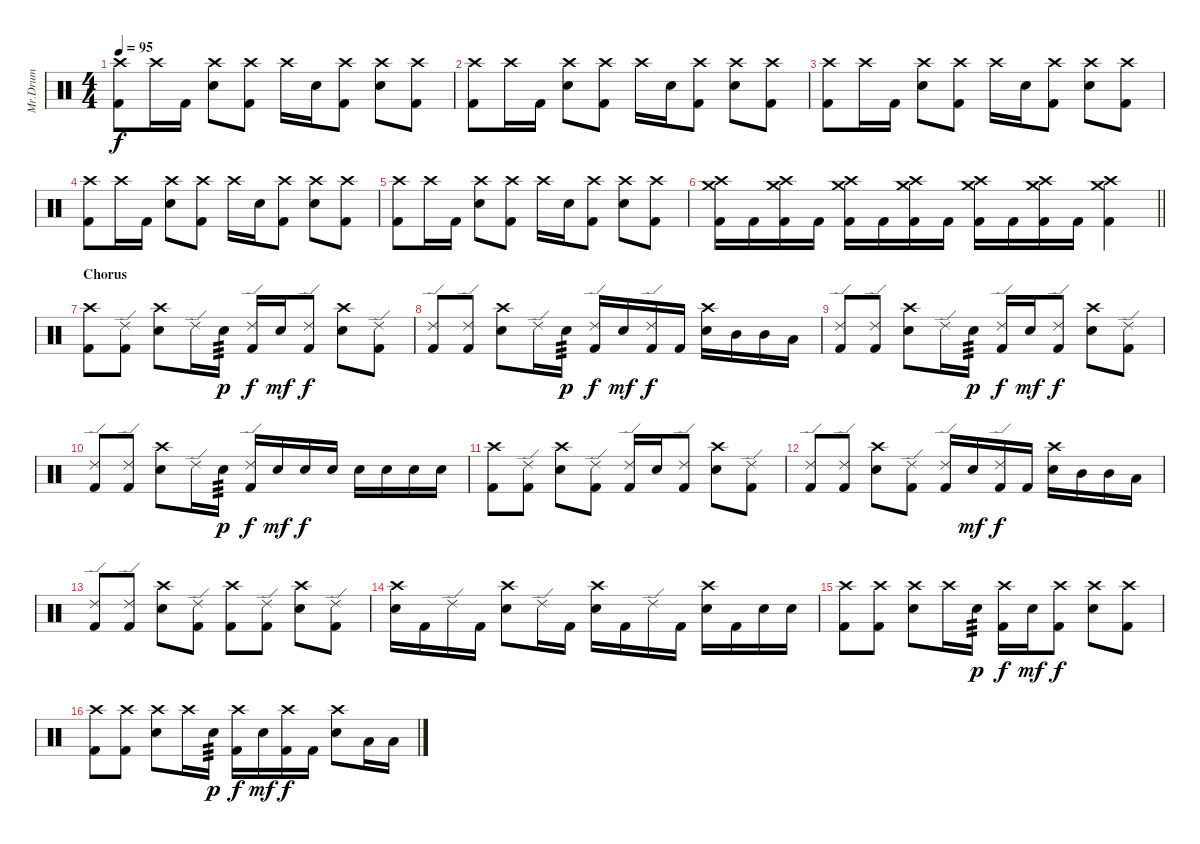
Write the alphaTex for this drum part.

\track ("Mr.Drum" "Mr.Drum") {instrument percussion}
\staff {score}
\articulation defaults
\ts (4 4)
\tempo 95
\clef neutral
\ks c
("Crash high (hit)" "Kick (hit) 2").8{dy f} "Crash high (hit)".16 "Kick (hit) 2".16 ("Crash high (hit)" "Electric Snare (hit)").8 ("Crash high (hit)" "Kick (hit) 2").8 "Crash high (hit)".16 "Electric Snare (hit)".16 ("Crash high (hit)" "Kick (hit) 2").8 ("Crash high (hit)" "Electric Snare (hit)").8 ("Crash high (hit)" "Kick (hit) 2").8 |
("Crash high (hit)" "Kick (hit) 2").8 "Crash high (hit)".16 "Kick (hit) 2".16 ("Crash high (hit)" "Electric Snare (hit)").8 ("Crash high (hit)" "Kick (hit) 2").8 "Crash high (hit)".16 "Electric Snare (hit)".16 ("Crash high (hit)" "Kick (hit) 2").8 ("Crash high (hit)" "Electric Snare (hit)").8 ("Crash high (hit)" "Kick (hit) 2").8 |
("Crash high (hit)" "Kick (hit) 2").8 "Crash high (hit)".16 "Kick (hit) 2".16 ("Crash high (hit)" "Electric Snare (hit)").8 ("Crash high (hit)" "Kick (hit) 2").8 "Crash high (hit)".16 "Electric Snare (hit)".16 ("Crash high (hit)" "Kick (hit) 2").8 ("Crash high (hit)" "Electric Snare (hit)").8 ("Crash high (hit)" "Kick (hit) 2").8 |
("Crash high (hit)" "Kick (hit) 2").8 "Crash high (hit)".16 "Kick (hit) 2".16 ("Crash high (hit)" "Electric Snare (hit)").8 ("Crash high (hit)" "Kick (hit) 2").8 "Crash high (hit)".16 "Electric Snare (hit)".16 ("Crash high (hit)" "Kick (hit) 2").8 ("Crash high (hit)" "Electric Snare (hit)").8 ("Crash high (hit)" "Kick (hit) 2").8 |
("Crash high (hit)" "Kick (hit) 2").8 "Crash high (hit)".16 "Kick (hit) 2".16 ("Crash high (hit)" "Electric Snare (hit)").8 ("Crash high (hit)" "Kick (hit) 2").8 "Crash high (hit)".16 "Electric Snare (hit)".16 ("Crash high (hit)" "Kick (hit) 2").8 ("Crash high (hit)" "Electric Snare (hit)").8 ("Crash high (hit)" "Kick (hit) 2").8 |
\barLineRight lightlight
("Crash high (hit)" "Crash medium (hit)" "Kick (hit) 2").16 "Kick (hit) 2".16 ("Crash high (hit)" "Crash medium (hit)" "Kick (hit) 2").16 "Kick (hit) 2".16 ("Crash high (hit)" "Crash medium (hit)" "Kick (hit) 2").16 "Kick (hit) 2".16 ("Crash high (hit)" "Crash medium (hit)" "Kick (hit) 2").16 "Kick (hit) 2".16 ("Crash high (hit)" "Crash medium (hit)" "Kick (hit) 2").16 "Kick (hit) 2".16 ("Crash high (hit)" "Crash medium (hit)" "Kick (hit) 2").16 "Kick (hit) 2".16 ("Crash high (hit)" "Crash medium (hit)" "Kick (hit) 2").4 |
\section ("" "Chorus")
("Crash high (hit)" "Kick (hit) 2").8 ("Ride (edge) 2" "Kick (hit) 2").8 ("Crash high (hit)" "Electric Snare (hit)").8 "Ride (edge) 2".16 "Electric Snare (hit)".16{tp 3 dy p} ("Ride (edge) 2" "Kick (hit) 2").16{dy f} "Electric Snare (hit)".16{dy mf} ("Ride (edge) 2" "Kick (hit) 2").8{dy f} ("Crash high (hit)" "Electric Snare (hit)").8 ("Ride (edge) 2" "Kick (hit) 2").8 |
("Ride (edge) 2" "Kick (hit) 2").8 ("Ride (edge) 2" "Kick (hit) 2").8 ("Crash high (hit)" "Electric Snare (hit)").8 "Ride (edge) 2".16 "Electric Snare (hit)".16{tp 3 dy p} ("Ride (edge) 2" "Kick (hit) 2").16{dy f} "Electric Snare (hit)".16{dy mf} ("Ride (edge) 2" "Kick (hit) 2").16{dy f} "Kick (hit) 2".16 ("Crash high (hit)" "Electric Snare (hit)").16 "Mid Tom (hit)".16 "Mid Tom (hit)".16 "Low Tom (hit)".16 |
("Ride (edge) 2" "Kick (hit) 2").8 ("Ride (edge) 2" "Kick (hit) 2").8 ("Crash high (hit)" "Electric Snare (hit)").8 "Ride (edge) 2".16 "Electric Snare (hit)".16{tp 3 dy p} ("Ride (edge) 2" "Kick (hit) 2").16{dy f} "Electric Snare (hit)".16{dy mf} ("Ride (edge) 2" "Kick (hit) 2").8{dy f} ("Crash high (hit)" "Electric Snare (hit)").8 ("Ride (edge) 2" "Kick (hit) 2").8 |
("Ride (edge) 2" "Kick (hit) 2").8 ("Ride (edge) 2" "Kick (hit) 2").8 ("Crash high (hit)" "Electric Snare (hit)").8 "Ride (edge) 2".16 "Electric Snare (hit)".16{tp 3 dy p} ("Ride (edge) 2" "Kick (hit) 2").16{dy f} "Electric Snare (hit)".16{dy mf} "Electric Snare (hit)".16{dy f} "Electric Snare (hit)".16 "Electric Snare (hit)".16 "Electric Snare (hit)".16 "Electric Snare (hit)".16 "Electric Snare (hit)".16 |
("Crash high (hit)" "Kick (hit) 2").8 ("Ride (edge) 2" "Kick (hit) 2").8 ("Crash high (hit)" "Electric Snare (hit)").8 ("Ride (edge) 2" "Kick (hit) 2").8 ("Ride (edge) 2" "Kick (hit) 2").16 "Electric Snare (hit)".16 ("Ride (edge) 2" "Kick (hit) 2").8 ("Crash high (hit)" "Electric Snare (hit)").8 ("Ride (edge) 2" "Kick (hit) 2").8 |
("Ride (edge) 2" "Kick (hit) 2").8 ("Ride (edge) 2" "Kick (hit) 2").8 ("Crash high (hit)" "Electric Snare (hit)").8 ("Ride (edge) 2" "Kick (hit) 2").8 ("Ride (edge) 2" "Kick (hit) 2").16 "Electric Snare (hit)".16{dy mf} ("Ride (edge) 2" "Kick (hit) 2").16{dy f} "Kick (hit) 2".16 ("Crash high (hit)" "Electric Snare (hit)").16 "Mid Tom (hit)".16 "Mid Tom (hit)".16 "Low Tom (hit)".16 |
("Ride (edge) 2" "Kick (hit) 2").8 ("Ride (edge) 2" "Kick (hit) 2").8 ("Crash high (hit)" "Electric Snare (hit)").8 ("Ride (edge) 2" "Kick (hit) 2").8 ("Crash high (hit)" "Kick (hit) 2").8 ("Ride (edge) 2" "Kick (hit) 2").8 ("Crash high (hit)" "Electric Snare (hit)").8 ("Ride (edge) 2" "Kick (hit) 2").8 |
("Crash high (hit)" "Electric Snare (hit)").16 "Kick (hit) 2".16 "Ride (edge) 2".16 "Kick (hit) 2".16 ("Crash high (hit)" "Electric Snare (hit)").8 "Ride (edge) 2".16 "Kick (hit) 2".16 ("Crash high (hit)" "Electric Snare (hit)").16 "Kick (hit) 2".16 "Ride (edge) 2".16 "Kick (hit) 2".16 ("Crash high (hit)" "Electric Snare (hit)").16 "Kick (hit) 2".16 "Electric Snare (hit)".16 "Electric Snare (hit)".16 |
("Crash high (hit)" "Kick (hit) 2").8 ("Crash high (hit)" "Kick (hit) 2").8 ("Crash high (hit)" "Electric Snare (hit)").8 "Crash high (hit)".16 "Electric Snare (hit)".16{tp 3 dy p} ("Crash high (hit)" "Kick (hit) 2").16{dy f} "Electric Snare (hit)".16{dy mf} ("Crash high (hit)" "Kick (hit) 2").8{dy f} ("Crash high (hit)" "Electric Snare (hit)").8 ("Crash high (hit)" "Kick (hit) 2").8 |
("Crash high (hit)" "Kick (hit) 2").8 ("Crash high (hit)" "Kick (hit) 2").8 ("Crash high (hit)" "Electric Snare (hit)").8 "Crash high (hit)".16 "Electric Snare (hit)".16{tp 3 dy p} ("Crash high (hit)" "Kick (hit) 2").16{dy f} "Electric Snare (hit)".16{dy mf} ("Crash high (hit)" "Kick (hit) 2").16{dy f} "Kick (hit) 2".16 ("Crash high (hit)" "Electric Snare (hit)").8 "Low Tom (hit)".16 "Low Tom (hit)".16
